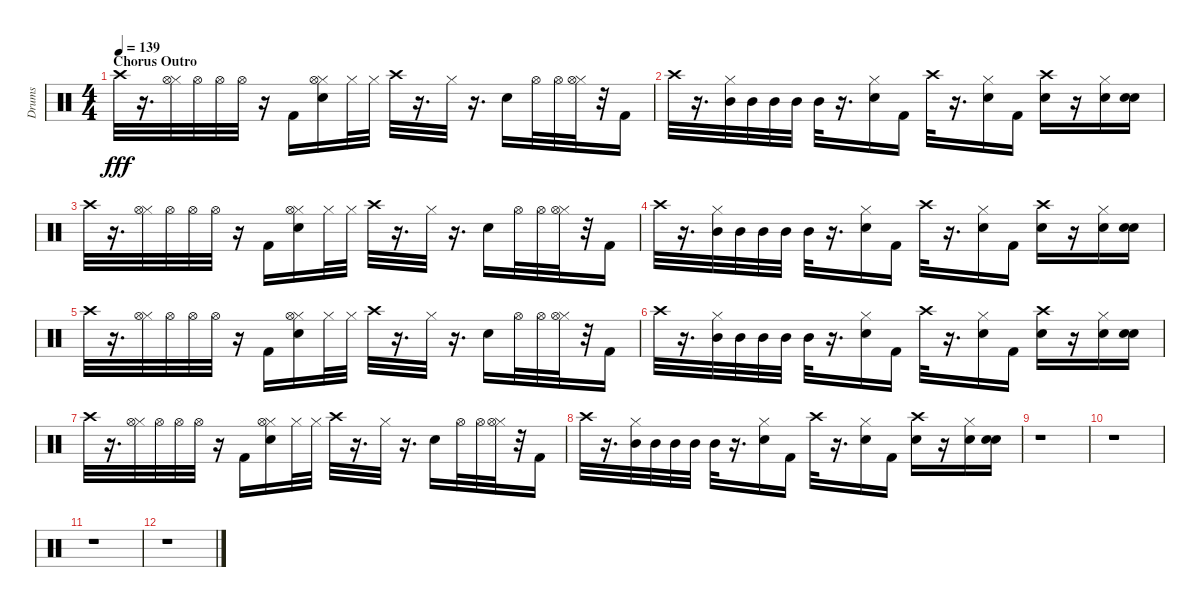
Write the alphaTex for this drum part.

\track ("Drums" "Drums") {instrument percussion}
\staff {score}
\articulation defaults
\ts (4 4)
\section ("" "Chorus Outro")
\tempo 139
\clef neutral
\ks c "Crash high (hit)".32{dy fff}
r.16{d} ("Hi-Hat (closed)" "Hi-Hat (open)").32 "Hi-Hat (open)".32 "Hi-Hat (open)".32 "Hi-Hat (open)".32 r.16 "Kick (hit) 2".16 ("Snare (hit) 2" "Hi-Hat (closed)" "Hi-Hat (open)").16 "Hi-Hat (closed)".32 "Hi-Hat (closed)".32 "Crash high (hit)".32 r.16{d} "Hi-Hat (closed)".32 r.16{d} "Snare (hit) 2".16 "Hi-Hat (open)".32 "Hi-Hat (open)".32 ("Hi-Hat (closed)" "Hi-Hat (open)").32 r.32 "Kick (hit) 2".16 |
"Crash high (hit)".32 r.16{d} ("Hi-Hat (closed)" "Mid Tom (hit)").32 "Mid Tom (hit)".32 "Mid Tom (hit)".32 "Mid Tom (hit)".32 "Mid Tom (hit)".32 r.16{d} ("Snare (hit) 2" "Hi-Hat (closed)").16 "Kick (hit) 2".16 "Crash high (hit)".32 r.16{d} ("Snare (hit) 2" "Hi-Hat (closed)").16 "Kick (hit) 2".16 ("Snare (hit) 2" "Crash high (hit)").16 r.16 ("Snare (hit) 2" "Hi-Hat (closed)").16 ("Snare (hit) 2" "Snare (hit) 2").16 |
"Crash high (hit)".32 r.16{d} ("Hi-Hat (closed)" "Hi-Hat (open)").32 "Hi-Hat (open)".32 "Hi-Hat (open)".32 "Hi-Hat (open)".32 r.16 "Kick (hit) 2".16 ("Snare (hit) 2" "Hi-Hat (closed)" "Hi-Hat (open)").16 "Hi-Hat (closed)".32 "Hi-Hat (closed)".32 "Crash high (hit)".32 r.16{d} "Hi-Hat (closed)".32 r.16{d} "Snare (hit) 2".16 "Hi-Hat (open)".32 "Hi-Hat (open)".32 ("Hi-Hat (closed)" "Hi-Hat (open)").32 r.32 "Kick (hit) 2".16 |
"Crash high (hit)".32 r.16{d} ("Hi-Hat (closed)" "Mid Tom (hit)").32 "Mid Tom (hit)".32 "Mid Tom (hit)".32 "Mid Tom (hit)".32 "Mid Tom (hit)".32 r.16{d} ("Snare (hit) 2" "Hi-Hat (closed)").16 "Kick (hit) 2".16 "Crash high (hit)".32 r.16{d} ("Snare (hit) 2" "Hi-Hat (closed)").16 "Kick (hit) 2".16 ("Snare (hit) 2" "Crash high (hit)").16 r.16 ("Snare (hit) 2" "Hi-Hat (closed)").16 ("Snare (hit) 2" "Snare (hit) 2").16 |
"Crash high (hit)".32 r.16{d} ("Hi-Hat (closed)" "Hi-Hat (open)").32 "Hi-Hat (open)".32 "Hi-Hat (open)".32 "Hi-Hat (open)".32 r.16 "Kick (hit) 2".16 ("Snare (hit) 2" "Hi-Hat (closed)" "Hi-Hat (open)").16 "Hi-Hat (closed)".32 "Hi-Hat (closed)".32 "Crash high (hit)".32 r.16{d} "Hi-Hat (closed)".32 r.16{d} "Snare (hit) 2".16 "Hi-Hat (open)".32 "Hi-Hat (open)".32 ("Hi-Hat (closed)" "Hi-Hat (open)").32 r.32 "Kick (hit) 2".16 |
"Crash high (hit)".32 r.16{d} ("Hi-Hat (closed)" "Mid Tom (hit)").32 "Mid Tom (hit)".32 "Mid Tom (hit)".32 "Mid Tom (hit)".32 "Mid Tom (hit)".32 r.16{d} ("Snare (hit) 2" "Hi-Hat (closed)").16 "Kick (hit) 2".16 "Crash high (hit)".32 r.16{d} ("Snare (hit) 2" "Hi-Hat (closed)").16 "Kick (hit) 2".16 ("Snare (hit) 2" "Crash high (hit)").16 r.16 ("Snare (hit) 2" "Hi-Hat (closed)").16 ("Snare (hit) 2" "Snare (hit) 2").16 |
"Crash high (hit)".32 r.16{d} ("Hi-Hat (closed)" "Hi-Hat (open)").32 "Hi-Hat (open)".32 "Hi-Hat (open)".32 "Hi-Hat (open)".32 r.16 "Kick (hit) 2".16 ("Snare (hit) 2" "Hi-Hat (closed)" "Hi-Hat (open)").16 "Hi-Hat (closed)".32 "Hi-Hat (closed)".32 "Crash high (hit)".32 r.16{d} "Hi-Hat (closed)".32 r.16{d} "Snare (hit) 2".16 "Hi-Hat (open)".32 "Hi-Hat (open)".32 ("Hi-Hat (closed)" "Hi-Hat (open)").32 r.32 "Kick (hit) 2".16 |
"Crash high (hit)".32 r.16{d} ("Hi-Hat (closed)" "Mid Tom (hit)").32 "Mid Tom (hit)".32 "Mid Tom (hit)".32 "Mid Tom (hit)".32 "Mid Tom (hit)".32 r.16{d} ("Snare (hit) 2" "Hi-Hat (closed)").16 "Kick (hit) 2".16 "Crash high (hit)".32 r.16{d} ("Snare (hit) 2" "Hi-Hat (closed)").16 "Kick (hit) 2".16 ("Snare (hit) 2" "Crash high (hit)").16 r.16 ("Snare (hit) 2" "Hi-Hat (closed)").16 ("Snare (hit) 2" "Snare (hit) 2").16 |
r.1 |
r.1 |
r.1 |
r.1
